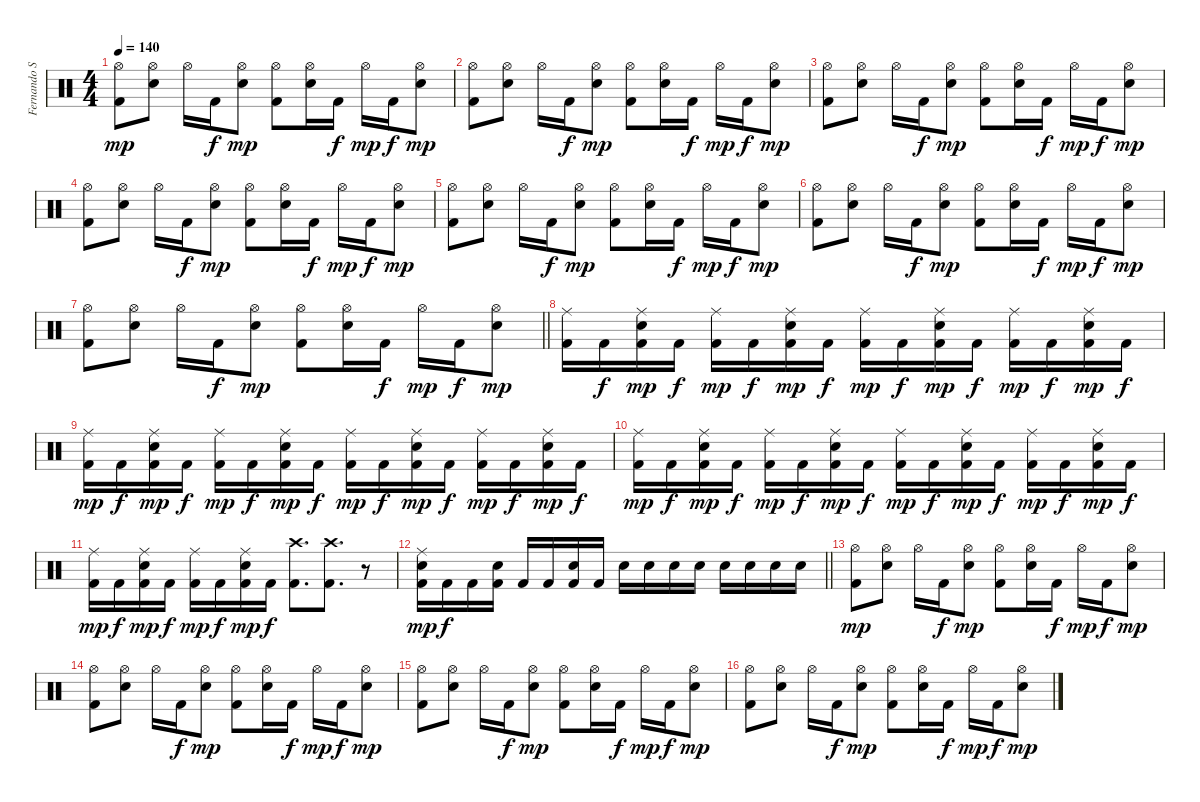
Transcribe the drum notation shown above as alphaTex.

\track ("Fernando Scarcella" "Fernando S") {instrument percussion}
\staff {score}
\articulation defaults
\ts (4 4)
\tempo 140
\clef neutral
\ks c
("Hi-Hat (open)" "Kick (hit) 2").8{dy mp} ("Hi-Hat (open)" "Snare (hit) 2").8 "Hi-Hat (open)".16 "Kick (hit) 2".16{dy f} ("Hi-Hat (open)" "Snare (hit) 2").8{dy mp} ("Hi-Hat (open)" "Kick (hit) 2").8 ("Hi-Hat (open)" "Snare (hit) 2").16 "Kick (hit) 2".16{dy f} "Hi-Hat (open)".16{dy mp} "Kick (hit) 2".16{dy f} ("Hi-Hat (open)" "Snare (hit) 2").8{dy mp} |
("Hi-Hat (open)" "Kick (hit) 2").8 ("Hi-Hat (open)" "Snare (hit) 2").8 "Hi-Hat (open)".16 "Kick (hit) 2".16{dy f} ("Hi-Hat (open)" "Snare (hit) 2").8{dy mp} ("Hi-Hat (open)" "Kick (hit) 2").8 ("Hi-Hat (open)" "Snare (hit) 2").16 "Kick (hit) 2".16{dy f} "Hi-Hat (open)".16{dy mp} "Kick (hit) 2".16{dy f} ("Hi-Hat (open)" "Snare (hit) 2").8{dy mp} |
("Hi-Hat (open)" "Kick (hit) 2").8 ("Hi-Hat (open)" "Snare (hit) 2").8 "Hi-Hat (open)".16 "Kick (hit) 2".16{dy f} ("Hi-Hat (open)" "Snare (hit) 2").8{dy mp} ("Hi-Hat (open)" "Kick (hit) 2").8 ("Hi-Hat (open)" "Snare (hit) 2").16 "Kick (hit) 2".16{dy f} "Hi-Hat (open)".16{dy mp} "Kick (hit) 2".16{dy f} ("Hi-Hat (open)" "Snare (hit) 2").8{dy mp} |
("Hi-Hat (open)" "Kick (hit) 2").8 ("Hi-Hat (open)" "Snare (hit) 2").8 "Hi-Hat (open)".16 "Kick (hit) 2".16{dy f} ("Hi-Hat (open)" "Snare (hit) 2").8{dy mp} ("Hi-Hat (open)" "Kick (hit) 2").8 ("Hi-Hat (open)" "Snare (hit) 2").16 "Kick (hit) 2".16{dy f} "Hi-Hat (open)".16{dy mp} "Kick (hit) 2".16{dy f} ("Hi-Hat (open)" "Snare (hit) 2").8{dy mp} |
("Hi-Hat (open)" "Kick (hit) 2").8 ("Hi-Hat (open)" "Snare (hit) 2").8 "Hi-Hat (open)".16 "Kick (hit) 2".16{dy f} ("Hi-Hat (open)" "Snare (hit) 2").8{dy mp} ("Hi-Hat (open)" "Kick (hit) 2").8 ("Hi-Hat (open)" "Snare (hit) 2").16 "Kick (hit) 2".16{dy f} "Hi-Hat (open)".16{dy mp} "Kick (hit) 2".16{dy f} ("Hi-Hat (open)" "Snare (hit) 2").8{dy mp} |
("Hi-Hat (open)" "Kick (hit) 2").8 ("Hi-Hat (open)" "Snare (hit) 2").8 "Hi-Hat (open)".16 "Kick (hit) 2".16{dy f} ("Hi-Hat (open)" "Snare (hit) 2").8{dy mp} ("Hi-Hat (open)" "Kick (hit) 2").8 ("Hi-Hat (open)" "Snare (hit) 2").16 "Kick (hit) 2".16{dy f} "Hi-Hat (open)".16{dy mp} "Kick (hit) 2".16{dy f} ("Hi-Hat (open)" "Snare (hit) 2").8{dy mp} |
\barLineRight lightlight
("Hi-Hat (open)" "Kick (hit) 2").8 ("Hi-Hat (open)" "Snare (hit) 2").8 "Hi-Hat (open)".16 "Kick (hit) 2".16{dy f} ("Hi-Hat (open)" "Snare (hit) 2").8{dy mp} ("Hi-Hat (open)" "Kick (hit) 2").8 ("Hi-Hat (open)" "Snare (hit) 2").16 "Kick (hit) 2".16{dy f} "Hi-Hat (open)".16{dy mp} "Kick (hit) 2".16{dy f} ("Hi-Hat (open)" "Snare (hit) 2").8{dy mp} |
("Ride (middle)" "Kick (hit) 2").16 "Kick (hit) 2".16{dy f} ("Ride (middle)" "Snare (hit) 2" "Kick (hit) 2").16{dy mp} "Kick (hit) 2".16{dy f} ("Ride (middle)" "Kick (hit) 2").16{dy mp} "Kick (hit) 2".16{dy f} ("Ride (middle)" "Snare (hit) 2" "Kick (hit) 2").16{dy mp} "Kick (hit) 2".16{dy f} ("Ride (middle)" "Kick (hit) 2").16{dy mp} "Kick (hit) 2".16{dy f} ("Ride (middle)" "Snare (hit) 2" "Kick (hit) 2").16{dy mp} "Kick (hit) 2".16{dy f} ("Ride (middle)" "Kick (hit) 2").16{dy mp} "Kick (hit) 2".16{dy f} ("Ride (middle)" "Snare (hit) 2" "Kick (hit) 2").16{dy mp} "Kick (hit) 2".16{dy f} |
("Ride (middle)" "Kick (hit) 2").16{dy mp} "Kick (hit) 2".16{dy f} ("Ride (middle)" "Snare (hit) 2" "Kick (hit) 2").16{dy mp} "Kick (hit) 2".16{dy f} ("Ride (middle)" "Kick (hit) 2").16{dy mp} "Kick (hit) 2".16{dy f} ("Ride (middle)" "Snare (hit) 2" "Kick (hit) 2").16{dy mp} "Kick (hit) 2".16{dy f} ("Ride (middle)" "Kick (hit) 2").16{dy mp} "Kick (hit) 2".16{dy f} ("Ride (middle)" "Snare (hit) 2" "Kick (hit) 2").16{dy mp} "Kick (hit) 2".16{dy f} ("Ride (middle)" "Kick (hit) 2").16{dy mp} "Kick (hit) 2".16{dy f} ("Ride (middle)" "Snare (hit) 2" "Kick (hit) 2").16{dy mp} "Kick (hit) 2".16{dy f} |
("Ride (middle)" "Kick (hit) 2").16{dy mp} "Kick (hit) 2".16{dy f} ("Ride (middle)" "Snare (hit) 2" "Kick (hit) 2").16{dy mp} "Kick (hit) 2".16{dy f} ("Ride (middle)" "Kick (hit) 2").16{dy mp} "Kick (hit) 2".16{dy f} ("Ride (middle)" "Snare (hit) 2" "Kick (hit) 2").16{dy mp} "Kick (hit) 2".16{dy f} ("Ride (middle)" "Kick (hit) 2").16{dy mp} "Kick (hit) 2".16{dy f} ("Ride (middle)" "Snare (hit) 2" "Kick (hit) 2").16{dy mp} "Kick (hit) 2".16{dy f} ("Ride (middle)" "Kick (hit) 2").16{dy mp} "Kick (hit) 2".16{dy f} ("Ride (middle)" "Snare (hit) 2" "Kick (hit) 2").16{dy mp} "Kick (hit) 2".16{dy f} |
("Ride (middle)" "Kick (hit) 2").16{dy mp} "Kick (hit) 2".16{dy f} ("Ride (middle)" "Snare (hit) 2" "Kick (hit) 2").16{dy mp} "Kick (hit) 2".16{dy f} ("Ride (middle)" "Kick (hit) 2").16{dy mp} "Kick (hit) 2".16{dy f} ("Ride (middle)" "Snare (hit) 2" "Kick (hit) 2").16{dy mp} "Kick (hit) 2".16{dy f} ("Crash high (hit)" "Kick (hit) 2").8{d} ("Crash high (hit)" "Kick (hit) 2").8{d} r.8 |
\barLineRight lightlight
("Ride (middle)" "Snare (hit) 2" "Kick (hit) 2").16{dy mp} "Kick (hit) 2".16{dy f} "Kick (hit) 2".16 ("Snare (hit) 2" "Kick (hit) 2").16 "Kick (hit) 2".16 "Kick (hit) 2".16 ("Snare (hit) 2" "Kick (hit) 2").16 "Kick (hit) 2".16 "Snare (hit) 2".16 "Snare (hit) 2".16 "Snare (hit) 2".16 "Snare (hit) 2".16 "Snare (hit) 2".16 "Snare (hit) 2".16 "Snare (hit) 2".16 "Snare (hit) 2".16 |
("Hi-Hat (open)" "Kick (hit) 2").8{dy mp} ("Hi-Hat (open)" "Snare (hit) 2").8 "Hi-Hat (open)".16 "Kick (hit) 2".16{dy f} ("Hi-Hat (open)" "Snare (hit) 2").8{dy mp} ("Hi-Hat (open)" "Kick (hit) 2").8 ("Hi-Hat (open)" "Snare (hit) 2").16 "Kick (hit) 2".16{dy f} "Hi-Hat (open)".16{dy mp} "Kick (hit) 2".16{dy f} ("Hi-Hat (open)" "Snare (hit) 2").8{dy mp} |
("Hi-Hat (open)" "Kick (hit) 2").8 ("Hi-Hat (open)" "Snare (hit) 2").8 "Hi-Hat (open)".16 "Kick (hit) 2".16{dy f} ("Hi-Hat (open)" "Snare (hit) 2").8{dy mp} ("Hi-Hat (open)" "Kick (hit) 2").8 ("Hi-Hat (open)" "Snare (hit) 2").16 "Kick (hit) 2".16{dy f} "Hi-Hat (open)".16{dy mp} "Kick (hit) 2".16{dy f} ("Hi-Hat (open)" "Snare (hit) 2").8{dy mp} |
("Hi-Hat (open)" "Kick (hit) 2").8 ("Hi-Hat (open)" "Snare (hit) 2").8 "Hi-Hat (open)".16 "Kick (hit) 2".16{dy f} ("Hi-Hat (open)" "Snare (hit) 2").8{dy mp} ("Hi-Hat (open)" "Kick (hit) 2").8 ("Hi-Hat (open)" "Snare (hit) 2").16 "Kick (hit) 2".16{dy f} "Hi-Hat (open)".16{dy mp} "Kick (hit) 2".16{dy f} ("Hi-Hat (open)" "Snare (hit) 2").8{dy mp} |
("Hi-Hat (open)" "Kick (hit) 2").8 ("Hi-Hat (open)" "Snare (hit) 2").8 "Hi-Hat (open)".16 "Kick (hit) 2".16{dy f} ("Hi-Hat (open)" "Snare (hit) 2").8{dy mp} ("Hi-Hat (open)" "Kick (hit) 2").8 ("Hi-Hat (open)" "Snare (hit) 2").16 "Kick (hit) 2".16{dy f} "Hi-Hat (open)".16{dy mp} "Kick (hit) 2".16{dy f} ("Hi-Hat (open)" "Snare (hit) 2").8{dy mp}
